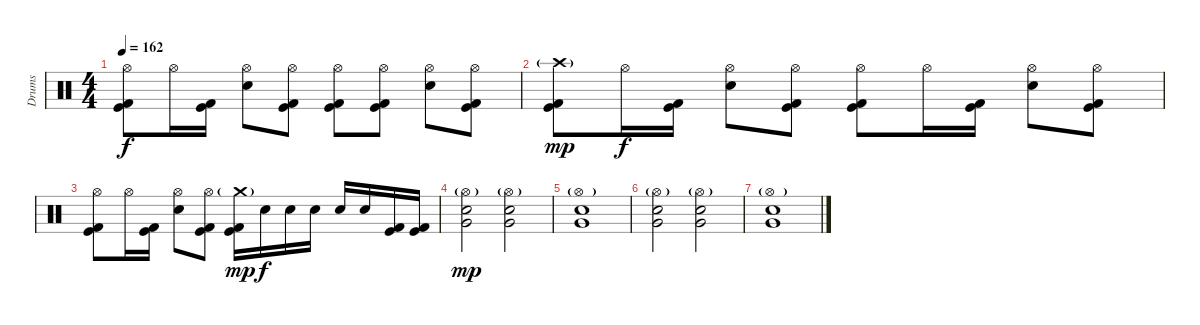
\track ("Drums" "Drums") {instrument percussion}
\staff {score}
\articulation defaults
\ts (4 4)
\tempo 162
\clef neutral
\ks c
("Hi-Hat (open)" "Kick (hit)" "Kick (hit) 2").8{dy f} "Hi-Hat (open)".16 ("Kick (hit)" "Kick (hit) 2").16 ("Hi-Hat (open)" "Electric Snare (hit)").8 ("Hi-Hat (open)" "Kick (hit)" "Kick (hit) 2").8 ("Hi-Hat (open)" "Kick (hit)" "Kick (hit) 2").8 ("Hi-Hat (open)" "Kick (hit)" "Kick (hit) 2").8 ("Hi-Hat (open)" "Electric Snare (hit)").8 ("Hi-Hat (open)" "Kick (hit)" "Kick (hit) 2").8 |
("Crash high (hit)"{g} "Kick (hit)" "Kick (hit) 2").8{dy mp} "Hi-Hat (open)".16{dy f} ("Kick (hit)" "Kick (hit) 2").16 ("Hi-Hat (open)" "Electric Snare (hit)").8 ("Hi-Hat (open)" "Kick (hit)" "Kick (hit) 2").8 ("Hi-Hat (open)" "Kick (hit)" "Kick (hit) 2").8 "Hi-Hat (open)".16 ("Kick (hit)" "Kick (hit) 2").16 ("Hi-Hat (open)" "Electric Snare (hit)").8 ("Hi-Hat (open)" "Kick (hit)" "Kick (hit) 2").8 |
("Hi-Hat (open)" "Kick (hit)" "Kick (hit) 2").8 "Hi-Hat (open)".16 ("Kick (hit)" "Kick (hit) 2").16 ("Hi-Hat (open)" "Electric Snare (hit)").8 ("Hi-Hat (open)" "Kick (hit)" "Kick (hit) 2").8 ("Crash medium (hit)"{g} "Kick (hit)" "Kick (hit) 2").16{dy mp} "Electric Snare (hit)".16{dy f} "Electric Snare (hit)".16 "Electric Snare (hit)".16 "Electric Snare (hit)".16 "Electric Snare (hit)".16 ("Kick (hit)" "Kick (hit) 2").16 ("Kick (hit)" "Kick (hit) 2").16 |
("Hi-Hat (open)"{g} "Electric Snare (hit)" "Very Low Tom (hit)").2{dy mp} ("Hi-Hat (open)"{g} "Electric Snare (hit)" "Very Low Tom (hit)").2 |
("Hi-Hat (open)"{g} "Electric Snare (hit)" "Very Low Tom (hit)").1 |
("Hi-Hat (open)"{g} "Electric Snare (hit)" "Very Low Tom (hit)").2 ("Hi-Hat (open)"{g} "Electric Snare (hit)" "Very Low Tom (hit)").2 |
("Hi-Hat (open)"{g} "Electric Snare (hit)" "Very Low Tom (hit)").1
